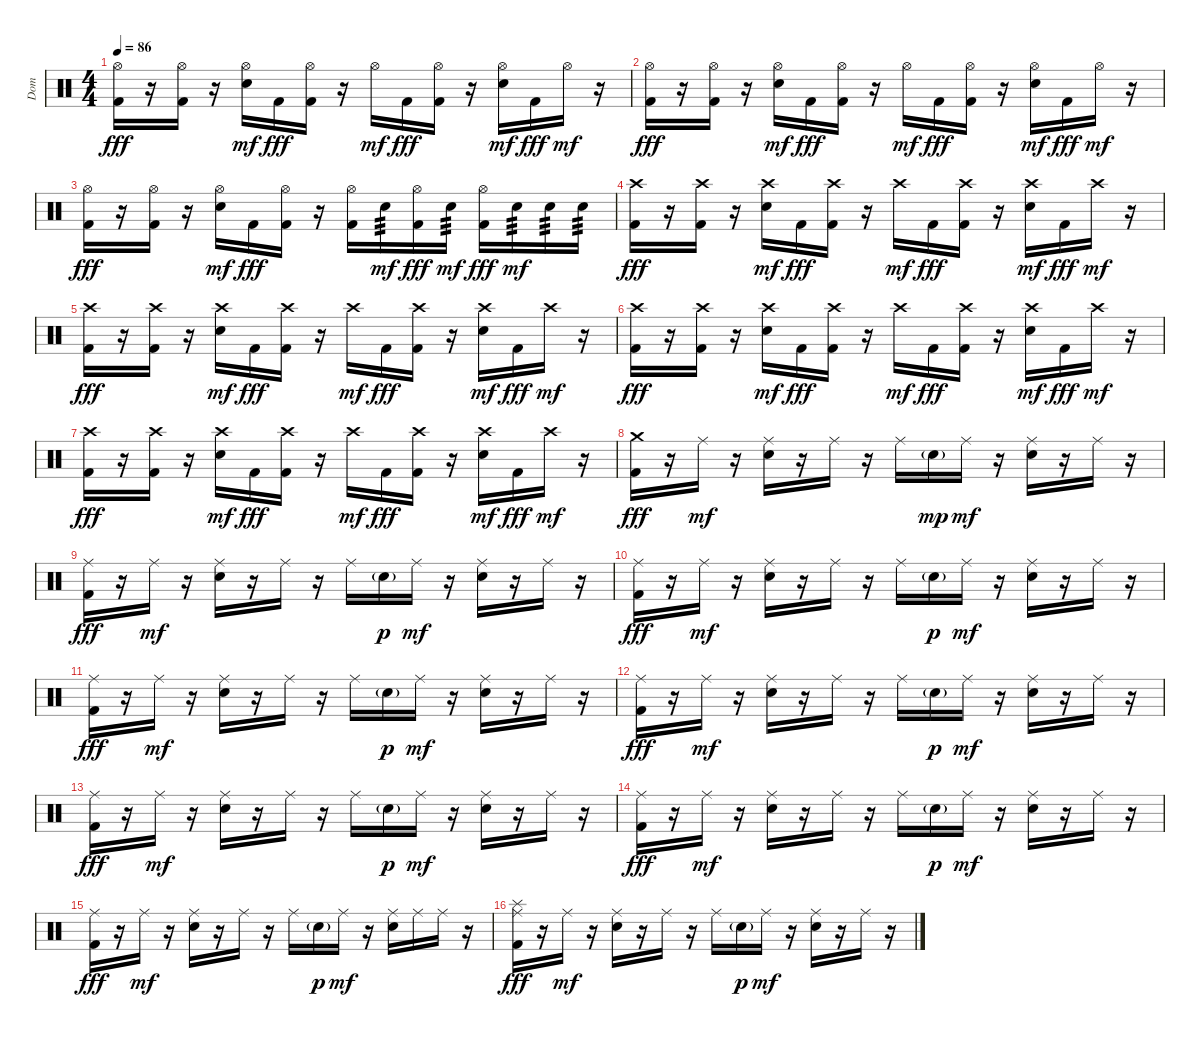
\track ("Dom" "Dom") {instrument percussion}
\staff {score}
\articulation defaults
\ts (4 4)
\tempo 86
\clef neutral
\ks c
("Hi-Hat (open)" "Kick (hit) 2").16{dy fff} r.16 ("Hi-Hat (open)" "Kick (hit) 2").16 r.16 ("Hi-Hat (open)" "Electric Snare (hit)").16{dy mf} "Kick (hit) 2".16{dy fff} ("Hi-Hat (open)" "Kick (hit) 2").16 r.16 "Hi-Hat (open)".16{dy mf} "Kick (hit) 2".16{dy fff} ("Hi-Hat (open)" "Kick (hit) 2").16 r.16 ("Hi-Hat (open)" "Electric Snare (hit)").16{dy mf} "Kick (hit) 2".16{dy fff} "Hi-Hat (open)".16{dy mf} r.16 |
("Hi-Hat (open)" "Kick (hit) 2").16{dy fff} r.16 ("Hi-Hat (open)" "Kick (hit) 2").16 r.16 ("Hi-Hat (open)" "Electric Snare (hit)").16{dy mf} "Kick (hit) 2".16{dy fff} ("Hi-Hat (open)" "Kick (hit) 2").16 r.16 "Hi-Hat (open)".16{dy mf} "Kick (hit) 2".16{dy fff} ("Hi-Hat (open)" "Kick (hit) 2").16 r.16 ("Hi-Hat (open)" "Electric Snare (hit)").16{dy mf} "Kick (hit) 2".16{dy fff} "Hi-Hat (open)".16{dy mf} r.16 |
("Hi-Hat (open)" "Kick (hit) 2").16{dy fff} r.16 ("Hi-Hat (open)" "Kick (hit) 2").16 r.16 ("Hi-Hat (open)" "Electric Snare (hit)").16{dy mf} "Kick (hit) 2".16{dy fff} ("Hi-Hat (open)" "Kick (hit) 2").16 r.16 ("Hi-Hat (open)" "Kick (hit) 2").16 "Electric Snare (hit)".16{tp 3 dy mf} ("Hi-Hat (open)" "Kick (hit) 2").16{dy fff} "Electric Snare (hit)".16{tp 3 dy mf} ("Hi-Hat (open)" "Kick (hit) 2").16{dy fff} "Electric Snare (hit)".16{tp 3 dy mf} "Electric Snare (hit)".16{tp 3} "Electric Snare (hit)".16{tp 3} |
("Crash high (hit)" "Kick (hit) 2").16{dy fff} r.16 ("Crash high (hit)" "Kick (hit) 2").16 r.16 ("Crash high (hit)" "Electric Snare (hit)").16{dy mf} "Kick (hit) 2".16{dy fff} ("Crash high (hit)" "Kick (hit) 2").16 r.16 "Crash high (hit)".16{dy mf} "Kick (hit) 2".16{dy fff} ("Crash high (hit)" "Kick (hit) 2").16 r.16 ("Crash high (hit)" "Electric Snare (hit)").16{dy mf} "Kick (hit) 2".16{dy fff} "Crash high (hit)".16{dy mf} r.16 |
("Crash high (hit)" "Kick (hit) 2").16{dy fff} r.16 ("Crash high (hit)" "Kick (hit) 2").16 r.16 ("Crash high (hit)" "Electric Snare (hit)").16{dy mf} "Kick (hit) 2".16{dy fff} ("Crash high (hit)" "Kick (hit) 2").16 r.16 "Crash high (hit)".16{dy mf} "Kick (hit) 2".16{dy fff} ("Crash high (hit)" "Kick (hit) 2").16 r.16 ("Crash high (hit)" "Electric Snare (hit)").16{dy mf} "Kick (hit) 2".16{dy fff} "Crash high (hit)".16{dy mf} r.16 |
("Crash high (hit)" "Kick (hit) 2").16{dy fff} r.16 ("Crash high (hit)" "Kick (hit) 2").16 r.16 ("Crash high (hit)" "Electric Snare (hit)").16{dy mf} "Kick (hit) 2".16{dy fff} ("Crash high (hit)" "Kick (hit) 2").16 r.16 "Crash high (hit)".16{dy mf} "Kick (hit) 2".16{dy fff} ("Crash high (hit)" "Kick (hit) 2").16 r.16 ("Crash high (hit)" "Electric Snare (hit)").16{dy mf} "Kick (hit) 2".16{dy fff} "Crash high (hit)".16{dy mf} r.16 |
("Crash high (hit)" "Kick (hit) 2").16{dy fff} r.16 ("Crash high (hit)" "Kick (hit) 2").16 r.16 ("Crash high (hit)" "Electric Snare (hit)").16{dy mf} "Kick (hit) 2".16{dy fff} ("Crash high (hit)" "Kick (hit) 2").16 r.16 "Crash high (hit)".16{dy mf} "Kick (hit) 2".16{dy fff} ("Crash high (hit)" "Kick (hit) 2").16 r.16 ("Crash high (hit)" "Electric Snare (hit)").16{dy mf} "Kick (hit) 2".16{dy fff} "Crash high (hit)".16{dy mf} r.16 |
("Crash medium (hit)" "Kick (hit) 2").16{dy fff} r.16 "Ride (middle)".16{dy mf} r.16 ("Ride (middle)" "Electric Snare (hit)").16 r.16 "Ride (middle)".16 r.16 "Ride (middle)".16 "Electric Snare (hit)"{g}.16{dy mp} "Ride (middle)".16{dy mf} r.16 ("Ride (middle)" "Electric Snare (hit)").16 r.16 "Ride (middle)".16 r.16 |
("Ride (middle)" "Kick (hit) 2").16{dy fff} r.16 "Ride (middle)".16{dy mf} r.16 ("Ride (middle)" "Electric Snare (hit)").16 r.16 "Ride (middle)".16 r.16 "Ride (middle)".16 "Electric Snare (hit)"{g}.16{dy p} "Ride (middle)".16{dy mf} r.16 ("Ride (middle)" "Electric Snare (hit)").16 r.16 "Ride (middle)".16 r.16 |
("Ride (middle)" "Kick (hit) 2").16{dy fff} r.16 "Ride (middle)".16{dy mf} r.16 ("Ride (middle)" "Electric Snare (hit)").16 r.16 "Ride (middle)".16 r.16 "Ride (middle)".16 "Electric Snare (hit)"{g}.16{dy p} "Ride (middle)".16{dy mf} r.16 ("Ride (middle)" "Electric Snare (hit)").16 r.16 "Ride (middle)".16 r.16 |
("Ride (middle)" "Kick (hit) 2").16{dy fff} r.16 "Ride (middle)".16{dy mf} r.16 ("Ride (middle)" "Electric Snare (hit)").16 r.16 "Ride (middle)".16 r.16 "Ride (middle)".16 "Electric Snare (hit)"{g}.16{dy p} "Ride (middle)".16{dy mf} r.16 ("Ride (middle)" "Electric Snare (hit)").16 r.16 "Ride (middle)".16 r.16 |
("Ride (middle)" "Kick (hit) 2").16{dy fff} r.16 "Ride (middle)".16{dy mf} r.16 ("Ride (middle)" "Electric Snare (hit)").16 r.16 "Ride (middle)".16 r.16 "Ride (middle)".16 "Electric Snare (hit)"{g}.16{dy p} "Ride (middle)".16{dy mf} r.16 ("Ride (middle)" "Electric Snare (hit)").16 r.16 "Ride (middle)".16 r.16 |
("Ride (middle)" "Kick (hit) 2").16{dy fff} r.16 "Ride (middle)".16{dy mf} r.16 ("Ride (middle)" "Electric Snare (hit)").16 r.16 "Ride (middle)".16 r.16 "Ride (middle)".16 "Electric Snare (hit)"{g}.16{dy p} "Ride (middle)".16{dy mf} r.16 ("Ride (middle)" "Electric Snare (hit)").16 r.16 "Ride (middle)".16 r.16 |
("Ride (middle)" "Kick (hit) 2").16{dy fff} r.16 "Ride (middle)".16{dy mf} r.16 ("Ride (middle)" "Electric Snare (hit)").16 r.16 "Ride (middle)".16 r.16 "Ride (middle)".16 "Electric Snare (hit)"{g}.16{dy p} "Ride (middle)".16{dy mf} r.16 ("Ride (middle)" "Electric Snare (hit)").16 r.16 "Ride (middle)".16 r.16 |
("Ride (middle)" "Kick (hit) 2").16{dy fff} r.16 "Ride (middle)".16{dy mf} r.16 ("Ride (middle)" "Electric Snare (hit)").16 r.16 "Ride (middle)".16 r.16 "Ride (middle)".16 "Electric Snare (hit)"{g}.16{dy p} "Ride (middle)".16{dy mf} r.16 ("Ride (middle)" "Electric Snare (hit)").16 "Ride (middle)".16 "Ride (middle)".16 r.16 |
("Ride (middle)" "Splash (hit)" "Kick (hit) 2").16{dy fff} r.16 "Ride (middle)".16{dy mf} r.16 ("Ride (middle)" "Electric Snare (hit)").16 r.16 "Ride (middle)".16 r.16 "Ride (middle)".16 "Electric Snare (hit)"{g}.16{dy p} "Ride (middle)".16{dy mf} r.16 ("Ride (middle)" "Electric Snare (hit)").16 r.16 "Ride (middle)".16 r.16
